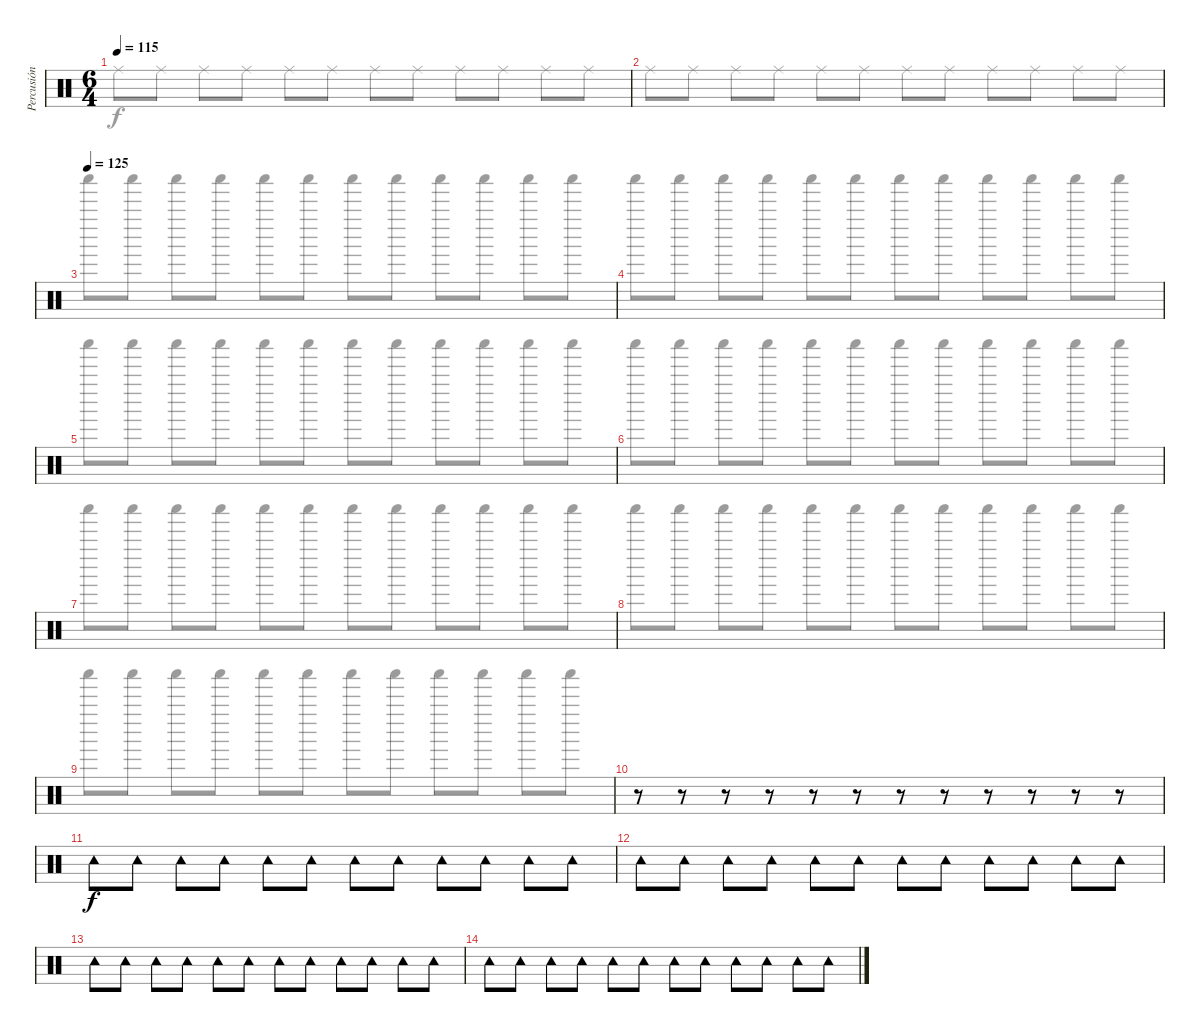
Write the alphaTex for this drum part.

\track ("Percusión" "Percusión") {instrument percussion}
\staff {score}
\articulation defaults
\voice
\ts (6 4)
\tempo 115
\clef neutral
\ks c
|
|
\tempo 125
|
|
|
|
|
|
|
r.8{volume 12 balance 8} r.8 r.8 r.8 r.8 r.8 r.8 r.8 r.8 r.8 r.8 r.8 |
"Tambourine (hit)".8 "Tambourine (hit)".8 "Tambourine (hit)".8 "Tambourine (hit)".8 "Tambourine (hit)".8 "Tambourine (hit)".8 "Tambourine (hit)".8 "Tambourine (hit)".8 "Tambourine (hit)".8 "Tambourine (hit)".8 "Tambourine (hit)".8 "Tambourine (hit)".8 |
"Tambourine (hit)".8 "Tambourine (hit)".8 "Tambourine (hit)".8 "Tambourine (hit)".8 "Tambourine (hit)".8 "Tambourine (hit)".8 "Tambourine (hit)".8 "Tambourine (hit)".8 "Tambourine (hit)".8 "Tambourine (hit)".8 "Tambourine (hit)".8 "Tambourine (hit)".8 |
"Tambourine (hit)".8 "Tambourine (hit)".8 "Tambourine (hit)".8 "Tambourine (hit)".8 "Tambourine (hit)".8 "Tambourine (hit)".8 "Tambourine (hit)".8 "Tambourine (hit)".8 "Tambourine (hit)".8 "Tambourine (hit)".8 "Tambourine (hit)".8 "Tambourine (hit)".8 |
"Tambourine (hit)".8 "Tambourine (hit)".8 "Tambourine (hit)".8 "Tambourine (hit)".8 "Tambourine (hit)".8 "Tambourine (hit)".8 "Tambourine (hit)".8 "Tambourine (hit)".8 "Tambourine (hit)".8 "Tambourine (hit)".8 "Tambourine (hit)".8 "Tambourine (hit)".8 |
|
\voice
\clef neutral
\ottava regular
\simile none
\ks c "Ride (middle)".8{dy f} "Ride (middle)".8 "Ride (middle)".8 "Ride (middle)".8 "Ride (middle)".8 "Ride (middle)".8 "Ride (middle)".8 "Ride (middle)".8 "Ride (middle)".8 "Ride (middle)".8 "Ride (middle)".8 "Ride (middle)".8
|
"Ride (middle)".8 "Ride (middle)".8 "Ride (middle)".8 "Ride (middle)".8 "Ride (middle)".8 "Ride (middle)".8 "Ride (middle)".8 "Ride (middle)".8 "Ride (middle)".8 "Ride (middle)".8 "Ride (middle)".8 "Ride (middle)".8 |
"Shaker (hit)".8 "Shaker (hit)".8 "Shaker (hit)".8 "Shaker (hit)".8 "Shaker (hit)".8 "Shaker (hit)".8 "Shaker (hit)".8 "Shaker (hit)".8 "Shaker (hit)".8 "Shaker (hit)".8 "Shaker (hit)".8 "Shaker (hit)".8 |
"Shaker (hit)".8 "Shaker (hit)".8 "Shaker (hit)".8 "Shaker (hit)".8 "Shaker (hit)".8 "Shaker (hit)".8 "Shaker (hit)".8 "Shaker (hit)".8 "Shaker (hit)".8 "Shaker (hit)".8 "Shaker (hit)".8 "Shaker (hit)".8 |
"Shaker (hit)".8 "Shaker (hit)".8 "Shaker (hit)".8 "Shaker (hit)".8 "Shaker (hit)".8 "Shaker (hit)".8 "Shaker (hit)".8 "Shaker (hit)".8 "Shaker (hit)".8 "Shaker (hit)".8 "Shaker (hit)".8 "Shaker (hit)".8 |
"Shaker (hit)".8 "Shaker (hit)".8 "Shaker (hit)".8 "Shaker (hit)".8 "Shaker (hit)".8 "Shaker (hit)".8 "Shaker (hit)".8 "Shaker (hit)".8 "Shaker (hit)".8 "Shaker (hit)".8 "Shaker (hit)".8 "Shaker (hit)".8 |
"Shaker (hit)".8 "Shaker (hit)".8 "Shaker (hit)".8 "Shaker (hit)".8 "Shaker (hit)".8 "Shaker (hit)".8 "Shaker (hit)".8 "Shaker (hit)".8 "Shaker (hit)".8 "Shaker (hit)".8 "Shaker (hit)".8 "Shaker (hit)".8 |
"Shaker (hit)".8 "Shaker (hit)".8 "Shaker (hit)".8 "Shaker (hit)".8 "Shaker (hit)".8 "Shaker (hit)".8 "Shaker (hit)".8 "Shaker (hit)".8 "Shaker (hit)".8 "Shaker (hit)".8 "Shaker (hit)".8 "Shaker (hit)".8 |
"Shaker (hit)".8 "Shaker (hit)".8 "Shaker (hit)".8 "Shaker (hit)".8 "Shaker (hit)".8 "Shaker (hit)".8 "Shaker (hit)".8 "Shaker (hit)".8 "Shaker (hit)".8 "Shaker (hit)".8 "Shaker (hit)".8 "Shaker (hit)".8 |
|
|
|
|
|
|
